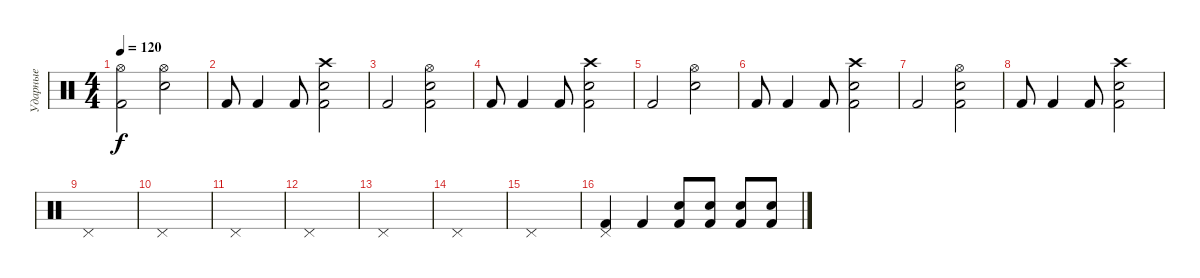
\track ("Ударные" "Ударные") {instrument percussion}
\staff {score}
\articulation defaults
\ts (4 4)
\tempo 120
\clef neutral
\ks c
("Hi-Hat (open)" "Kick (hit) 2").2{dy f} ("Hi-Hat (open)" "Snare (hit) 2").2 |
"Kick (hit) 2".8 "Kick (hit) 2".4 "Kick (hit) 2".8 ("Crash high (hit)" "Snare (hit) 2" "Kick (hit) 2").2 |
"Kick (hit) 2".2 ("Hi-Hat (open)" "Snare (hit) 2" "Kick (hit) 2").2 |
"Kick (hit) 2".8 "Kick (hit) 2".4 "Kick (hit) 2".8 ("Crash high (hit)" "Snare (hit) 2" "Kick (hit) 2").2 |
"Kick (hit) 2".2 ("Hi-Hat (open)" "Snare (hit) 2").2 |
"Kick (hit) 2".8 "Kick (hit) 2".4 "Kick (hit) 2".8 ("Crash high (hit)" "Snare (hit) 2" "Kick (hit) 2").2 |
"Kick (hit) 2".2 ("Hi-Hat (open)" "Snare (hit) 2" "Kick (hit) 2").2 |
"Kick (hit) 2".8 "Kick (hit) 2".4 "Kick (hit) 2".8 ("Crash high (hit)" "Snare (hit) 2" "Kick (hit) 2").2 |
"Pedal Hi-Hat (hit)".1 |
"Pedal Hi-Hat (hit)".1 |
"Pedal Hi-Hat (hit)".1 |
"Pedal Hi-Hat (hit)".1 |
"Pedal Hi-Hat (hit)".1 |
"Pedal Hi-Hat (hit)".1 |
"Pedal Hi-Hat (hit)".1 |
("Pedal Hi-Hat (hit)" "Kick (hit) 2").4 "Kick (hit) 2".4 ("Snare (hit) 2" "Kick (hit) 2").8 ("Snare (hit) 2" "Kick (hit) 2").8 ("Snare (hit) 2" "Kick (hit) 2").8 ("Snare (hit) 2" "Kick (hit) 2").8
